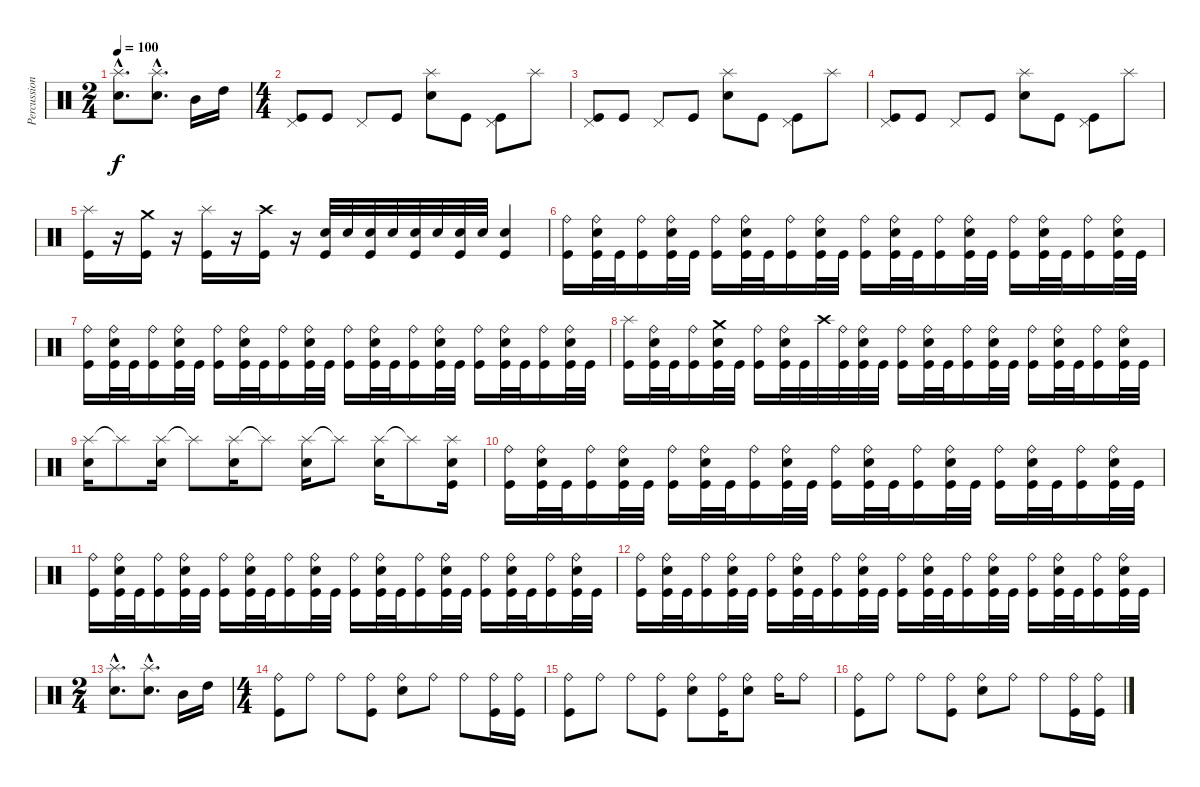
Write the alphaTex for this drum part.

\track ("Percussioni" "Percussion") {instrument percussion}
\staff {score}
\articulation defaults
\ts (2 4)
\tempo 100
\clef neutral
\ks c
("Splash (hit)"{hac} "Snare (hit) 2"{hac}).8{d dy f} ("Splash (hit)"{hac} "Snare (hit) 2"{hac}).8{d} "Mid Tom (hit)".16 "High Tom (hit)".16 |
\ts (4 4)
("Pedal Hi-Hat (hit)" "Kick (hit)").8 "Kick (hit)".8 "Pedal Hi-Hat (hit)".8 "Kick (hit)".8 ("Splash (hit)" "Snare (hit) 2").8 "Kick (hit)".8 ("Pedal Hi-Hat (hit)" "Kick (hit)").8 "Splash (hit)".8 |
("Pedal Hi-Hat (hit)" "Kick (hit)").8 "Kick (hit)".8 "Pedal Hi-Hat (hit)".8 "Kick (hit)".8 ("Splash (hit)" "Snare (hit) 2").8 "Kick (hit)".8 ("Pedal Hi-Hat (hit)" "Kick (hit)").8 "Splash (hit)".8 |
("Pedal Hi-Hat (hit)" "Kick (hit)").8 "Kick (hit)".8 "Pedal Hi-Hat (hit)".8 "Kick (hit)".8 ("Splash (hit)" "Snare (hit) 2").8 "Kick (hit)".8 ("Pedal Hi-Hat (hit)" "Kick (hit)").8 "Splash (hit)".8 |
("Splash (hit)" "Kick (hit)").16 r.16 ("Crash medium (hit)" "Kick (hit)").16 r.16 ("Splash (hit)" "Kick (hit)").16 r.16 ("Crash high (hit)" "Kick (hit)").16 r.16 ("Snare (hit) 2" "Kick (hit)").32 "Snare (hit) 2".32 ("Snare (hit) 2" "Kick (hit)").32 "Snare (hit) 2".32 ("Snare (hit) 2" "Kick (hit)").32 "Snare (hit) 2".32 ("Snare (hit) 2" "Kick (hit)").32 "Snare (hit) 2".32 ("Snare (hit) 2" "Kick (hit)").4 |
("Ride (bell)" "Kick (hit)").16 ("Ride (bell)" "Snare (hit) 2" "Kick (hit)").32 "Kick (hit)".32 ("Ride (bell)" "Kick (hit)").16 ("Ride (bell)" "Snare (hit) 2" "Kick (hit)").32 "Kick (hit)".32 ("Ride (bell)" "Kick (hit)").16 ("Ride (bell)" "Snare (hit) 2" "Kick (hit)").32 "Kick (hit)".32 ("Ride (bell)" "Kick (hit)").16 ("Ride (bell)" "Snare (hit) 2" "Kick (hit)").32 "Kick (hit)".32 ("Ride (bell)" "Kick (hit)").16 ("Ride (bell)" "Snare (hit) 2" "Kick (hit)").32 "Kick (hit)".32 ("Ride (bell)" "Kick (hit)").16 ("Ride (bell)" "Snare (hit) 2" "Kick (hit)").32 "Kick (hit)".32 ("Ride (bell)" "Kick (hit)").16 ("Ride (bell)" "Snare (hit) 2" "Kick (hit)").32 "Kick (hit)".32 ("Ride (bell)" "Kick (hit)").16 ("Ride (bell)" "Snare (hit) 2" "Kick (hit)").32 "Kick (hit)".32 |
("Ride (bell)" "Kick (hit)").16 ("Ride (bell)" "Snare (hit) 2" "Kick (hit)").32 "Kick (hit)".32 ("Ride (bell)" "Kick (hit)").16 ("Ride (bell)" "Snare (hit) 2" "Kick (hit)").32 "Kick (hit)".32 ("Ride (bell)" "Kick (hit)").16 ("Ride (bell)" "Snare (hit) 2" "Kick (hit)").32 "Kick (hit)".32 ("Ride (bell)" "Kick (hit)").16 ("Ride (bell)" "Snare (hit) 2" "Kick (hit)").32 "Kick (hit)".32 ("Ride (bell)" "Kick (hit)").16 ("Ride (bell)" "Snare (hit) 2" "Kick (hit)").32 "Kick (hit)".32 ("Ride (bell)" "Kick (hit)").16 ("Ride (bell)" "Snare (hit) 2" "Kick (hit)").32 "Kick (hit)".32 ("Ride (bell)" "Kick (hit)").16 ("Ride (bell)" "Snare (hit) 2" "Kick (hit)").32 "Kick (hit)".32 ("Ride (bell)" "Kick (hit)").16 ("Ride (bell)" "Snare (hit) 2" "Kick (hit)").32 "Kick (hit)".32 |
("Splash (hit)" "Kick (hit)").16 ("Ride (bell)" "Snare (hit) 2" "Kick (hit)").32 "Kick (hit)".32 ("Ride (bell)" "Kick (hit)").16 ("Crash medium (hit)" "Snare (hit) 2" "Kick (hit)").32 "Kick (hit)".32 ("Ride (bell)" "Kick (hit)").16 ("Ride (bell)" "Snare (hit) 2" "Kick (hit)").32 "Kick (hit)".32 "Crash high (hit)".32 ("Ride (bell)" "Kick (hit)").32 ("Ride (bell)" "Snare (hit) 2" "Kick (hit)").32 "Kick (hit)".32 ("Ride (bell)" "Kick (hit)").16 ("Ride (bell)" "Snare (hit) 2" "Kick (hit)").32 "Kick (hit)".32 ("Ride (bell)" "Kick (hit)").16 ("Ride (bell)" "Snare (hit) 2" "Kick (hit)").32 "Kick (hit)".32 ("Ride (bell)" "Kick (hit)").16 ("Ride (bell)" "Snare (hit) 2" "Kick (hit)").32 "Kick (hit)".32 ("Ride (bell)" "Kick (hit)").16 ("Ride (bell)" "Snare (hit) 2" "Kick (hit)").32 "Kick (hit)".32 |
("Splash (hit)" "Snare (hit) 2").16 "Splash (hit)"{t}.8 ("Splash (hit)" "Snare (hit) 2").16 "Splash (hit)"{t}.8 ("Splash (hit)" "Snare (hit) 2").16 "Splash (hit)"{t}.8 ("Splash (hit)" "Snare (hit) 2").16 "Splash (hit)"{t}.8 ("Splash (hit)" "Snare (hit) 2").16 "Splash (hit)"{t}.8 ("Splash (hit)" "Snare (hit) 2" "Kick (hit)").16 |
("Ride (bell)" "Kick (hit)").16 ("Ride (bell)" "Snare (hit) 2" "Kick (hit)").32 "Kick (hit)".32 ("Ride (bell)" "Kick (hit)").16 ("Ride (bell)" "Snare (hit) 2" "Kick (hit)").32 "Kick (hit)".32 ("Ride (bell)" "Kick (hit)").16 ("Ride (bell)" "Snare (hit) 2" "Kick (hit)").32 "Kick (hit)".32 ("Ride (bell)" "Kick (hit)").16 ("Ride (bell)" "Snare (hit) 2" "Kick (hit)").32 "Kick (hit)".32 ("Ride (bell)" "Kick (hit)").16 ("Ride (bell)" "Snare (hit) 2" "Kick (hit)").32 "Kick (hit)".32 ("Ride (bell)" "Kick (hit)").16 ("Ride (bell)" "Snare (hit) 2" "Kick (hit)").32 "Kick (hit)".32 ("Ride (bell)" "Kick (hit)").16 ("Ride (bell)" "Snare (hit) 2" "Kick (hit)").32 "Kick (hit)".32 ("Ride (bell)" "Kick (hit)").16 ("Ride (bell)" "Snare (hit) 2" "Kick (hit)").32 "Kick (hit)".32 |
("Ride (bell)" "Kick (hit)").16 ("Ride (bell)" "Snare (hit) 2" "Kick (hit)").32 "Kick (hit)".32 ("Ride (bell)" "Kick (hit)").16 ("Ride (bell)" "Snare (hit) 2" "Kick (hit)").32 "Kick (hit)".32 ("Ride (bell)" "Kick (hit)").16 ("Ride (bell)" "Snare (hit) 2" "Kick (hit)").32 "Kick (hit)".32 ("Ride (bell)" "Kick (hit)").16 ("Ride (bell)" "Snare (hit) 2" "Kick (hit)").32 "Kick (hit)".32 ("Ride (bell)" "Kick (hit)").16 ("Ride (bell)" "Snare (hit) 2" "Kick (hit)").32 "Kick (hit)".32 ("Ride (bell)" "Kick (hit)").16 ("Ride (bell)" "Snare (hit) 2" "Kick (hit)").32 "Kick (hit)".32 ("Ride (bell)" "Kick (hit)").16 ("Ride (bell)" "Snare (hit) 2" "Kick (hit)").32 "Kick (hit)".32 ("Ride (bell)" "Kick (hit)").16 ("Ride (bell)" "Snare (hit) 2" "Kick (hit)").32 "Kick (hit)".32 |
("Ride (bell)" "Kick (hit)").16 ("Ride (bell)" "Snare (hit) 2" "Kick (hit)").32 "Kick (hit)".32 ("Ride (bell)" "Kick (hit)").16 ("Ride (bell)" "Snare (hit) 2" "Kick (hit)").32 "Kick (hit)".32 ("Ride (bell)" "Kick (hit)").16 ("Ride (bell)" "Snare (hit) 2" "Kick (hit)").32 "Kick (hit)".32 ("Ride (bell)" "Kick (hit)").16 ("Ride (bell)" "Snare (hit) 2" "Kick (hit)").32 "Kick (hit)".32 ("Ride (bell)" "Kick (hit)").16 ("Ride (bell)" "Snare (hit) 2" "Kick (hit)").32 "Kick (hit)".32 ("Ride (bell)" "Kick (hit)").16 ("Ride (bell)" "Snare (hit) 2" "Kick (hit)").32 "Kick (hit)".32 ("Ride (bell)" "Kick (hit)").16 ("Ride (bell)" "Snare (hit) 2" "Kick (hit)").32 "Kick (hit)".32 ("Ride (bell)" "Kick (hit)").16 ("Ride (bell)" "Snare (hit) 2" "Kick (hit)").32 "Kick (hit)".32 |
\ts (2 4)
("Splash (hit)"{hac} "Snare (hit) 2"{hac}).8{d} ("Splash (hit)"{hac} "Snare (hit) 2"{hac}).8{d} "Mid Tom (hit)".16 "High Tom (hit)".16 |
\ts (4 4)
("Ride (bell)" "Kick (hit)").8 "Ride (bell)".8 "Ride (bell)".8 ("Ride (bell)" "Kick (hit)").8 ("Ride (bell)" "Snare (hit) 2").8 "Ride (bell)".8 "Ride (bell)".8 ("Ride (bell)" "Kick (hit)").16 ("Ride (bell)" "Kick (hit)").16 |
("Ride (bell)" "Kick (hit)").8 "Ride (bell)".8 "Ride (bell)".8 ("Ride (bell)" "Kick (hit)").8 ("Ride (bell)" "Snare (hit) 2").8 ("Ride (bell)" "Kick (hit)").16 ("Ride (bell)" "Snare (hit) 2").8 "Ride (bell)".16 "Ride (bell)".8 |
("Ride (bell)" "Kick (hit)").8 "Ride (bell)".8 "Ride (bell)".8 ("Ride (bell)" "Kick (hit)").8 ("Ride (bell)" "Snare (hit) 2").8 "Ride (bell)".8 "Ride (bell)".8 ("Ride (bell)" "Kick (hit)").16 ("Ride (bell)" "Kick (hit)").16
